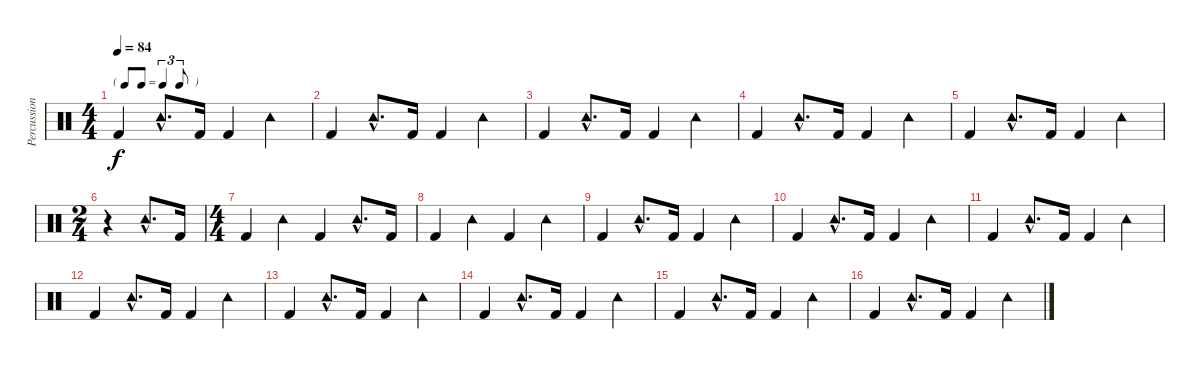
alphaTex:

\track ("Percussion" "Percussion") {instrument percussion}
\staff {score}
\articulation defaults
\ts (4 4)
\tf triplet8th
\tempo 84
\clef neutral
\ks c "Kick (hit) 2".4{dy f} "Tambourine (hit)"{hac}.8{d} "Kick (hit) 2".16 "Kick (hit) 2".4 "Tambourine (hit)".4
|
"Kick (hit) 2".4 "Tambourine (hit)"{hac}.8{d} "Kick (hit) 2".16 "Kick (hit) 2".4 "Tambourine (hit)".4 |
"Kick (hit) 2".4 "Tambourine (hit)"{hac}.8{d} "Kick (hit) 2".16 "Kick (hit) 2".4 "Tambourine (hit)".4 |
"Kick (hit) 2".4 "Tambourine (hit)"{hac}.8{d} "Kick (hit) 2".16 "Kick (hit) 2".4 "Tambourine (hit)".4 |
"Kick (hit) 2".4 "Tambourine (hit)"{hac}.8{d} "Kick (hit) 2".16 "Kick (hit) 2".4 "Tambourine (hit)".4 |
\ts (2 4)
r.4 "Tambourine (hit)"{hac}.8{d} "Kick (hit) 2".16 |
\ts (4 4)
"Kick (hit) 2".4 "Tambourine (hit)".4 "Kick (hit) 2".4 "Tambourine (hit)"{hac}.8{d} "Kick (hit) 2".16 |
"Kick (hit) 2".4 "Tambourine (hit)".4 "Kick (hit) 2".4 "Tambourine (hit)".4 |
"Kick (hit) 2".4 "Tambourine (hit)"{hac}.8{d} "Kick (hit) 2".16 "Kick (hit) 2".4 "Tambourine (hit)".4 |
"Kick (hit) 2".4 "Tambourine (hit)"{hac}.8{d} "Kick (hit) 2".16 "Kick (hit) 2".4 "Tambourine (hit)".4 |
"Kick (hit) 2".4 "Tambourine (hit)"{hac}.8{d} "Kick (hit) 2".16 "Kick (hit) 2".4 "Tambourine (hit)".4 |
"Kick (hit) 2".4 "Tambourine (hit)"{hac}.8{d} "Kick (hit) 2".16 "Kick (hit) 2".4 "Tambourine (hit)".4 |
"Kick (hit) 2".4 "Tambourine (hit)"{hac}.8{d} "Kick (hit) 2".16 "Kick (hit) 2".4 "Tambourine (hit)".4 |
"Kick (hit) 2".4 "Tambourine (hit)"{hac}.8{d} "Kick (hit) 2".16 "Kick (hit) 2".4 "Tambourine (hit)".4 |
"Kick (hit) 2".4 "Tambourine (hit)"{hac}.8{d} "Kick (hit) 2".16 "Kick (hit) 2".4 "Tambourine (hit)".4 |
"Kick (hit) 2".4 "Tambourine (hit)"{hac}.8{d} "Kick (hit) 2".16 "Kick (hit) 2".4 "Tambourine (hit)".4
